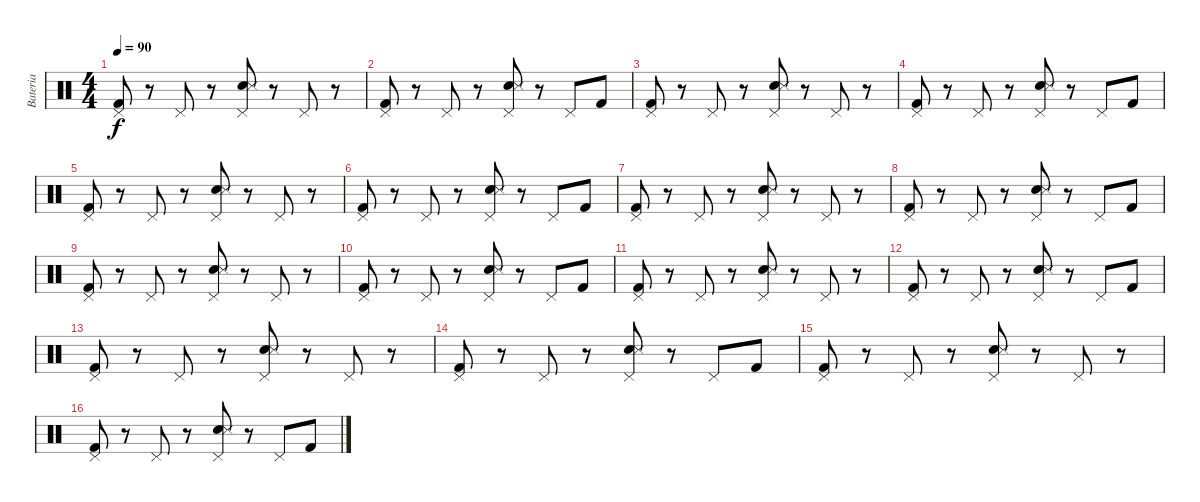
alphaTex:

\track ("Bateria" "Bateria") {instrument percussion}
\staff {score}
\articulation defaults
\ts (4 4)
\tempo 90
\clef neutral
\ks c
("Pedal Hi-Hat (hit)" "Kick (hit) 2").8{dy f} r.8 "Pedal Hi-Hat (hit)".8 r.8 ("Pedal Hi-Hat (hit)" "Snare (hit) 2" "Snare (side stick) 3").8 r.8 "Pedal Hi-Hat (hit)".8 r.8 |
("Pedal Hi-Hat (hit)" "Kick (hit) 2").8 r.8 "Pedal Hi-Hat (hit)".8 r.8 ("Pedal Hi-Hat (hit)" "Snare (hit) 2" "Snare (side stick) 3").8 r.8 "Pedal Hi-Hat (hit)".8 "Kick (hit) 2".8 |
("Pedal Hi-Hat (hit)" "Kick (hit) 2").8 r.8 "Pedal Hi-Hat (hit)".8 r.8 ("Pedal Hi-Hat (hit)" "Snare (hit) 2" "Snare (side stick) 3").8 r.8 "Pedal Hi-Hat (hit)".8 r.8 |
("Pedal Hi-Hat (hit)" "Kick (hit) 2").8 r.8 "Pedal Hi-Hat (hit)".8 r.8 ("Pedal Hi-Hat (hit)" "Snare (hit) 2" "Snare (side stick) 3").8 r.8 "Pedal Hi-Hat (hit)".8 "Kick (hit) 2".8 |
("Pedal Hi-Hat (hit)" "Kick (hit) 2").8 r.8 "Pedal Hi-Hat (hit)".8 r.8 ("Pedal Hi-Hat (hit)" "Snare (hit) 2" "Snare (side stick) 3").8 r.8 "Pedal Hi-Hat (hit)".8 r.8 |
("Pedal Hi-Hat (hit)" "Kick (hit) 2").8 r.8 "Pedal Hi-Hat (hit)".8 r.8 ("Pedal Hi-Hat (hit)" "Snare (hit) 2" "Snare (side stick) 3").8 r.8 "Pedal Hi-Hat (hit)".8 "Kick (hit) 2".8 |
("Pedal Hi-Hat (hit)" "Kick (hit) 2").8 r.8 "Pedal Hi-Hat (hit)".8 r.8 ("Pedal Hi-Hat (hit)" "Snare (hit) 2" "Snare (side stick) 3").8 r.8 "Pedal Hi-Hat (hit)".8 r.8 |
("Pedal Hi-Hat (hit)" "Kick (hit) 2").8 r.8 "Pedal Hi-Hat (hit)".8 r.8 ("Pedal Hi-Hat (hit)" "Snare (hit) 2" "Snare (side stick) 3").8 r.8 "Pedal Hi-Hat (hit)".8 "Kick (hit) 2".8 |
("Pedal Hi-Hat (hit)" "Kick (hit) 2").8 r.8 "Pedal Hi-Hat (hit)".8 r.8 ("Pedal Hi-Hat (hit)" "Snare (hit) 2" "Snare (side stick) 3").8 r.8 "Pedal Hi-Hat (hit)".8 r.8 |
("Pedal Hi-Hat (hit)" "Kick (hit) 2").8 r.8 "Pedal Hi-Hat (hit)".8 r.8 ("Pedal Hi-Hat (hit)" "Snare (hit) 2" "Snare (side stick) 3").8 r.8 "Pedal Hi-Hat (hit)".8 "Kick (hit) 2".8 |
("Pedal Hi-Hat (hit)" "Kick (hit) 2").8 r.8 "Pedal Hi-Hat (hit)".8 r.8 ("Pedal Hi-Hat (hit)" "Snare (hit) 2" "Snare (side stick) 3").8 r.8 "Pedal Hi-Hat (hit)".8 r.8 |
("Pedal Hi-Hat (hit)" "Kick (hit) 2").8 r.8 "Pedal Hi-Hat (hit)".8 r.8 ("Pedal Hi-Hat (hit)" "Snare (hit) 2" "Snare (side stick) 3").8 r.8 "Pedal Hi-Hat (hit)".8 "Kick (hit) 2".8 |
("Pedal Hi-Hat (hit)" "Kick (hit) 2").8 r.8 "Pedal Hi-Hat (hit)".8 r.8 ("Pedal Hi-Hat (hit)" "Snare (hit) 2" "Snare (side stick) 3").8 r.8 "Pedal Hi-Hat (hit)".8 r.8 |
("Pedal Hi-Hat (hit)" "Kick (hit) 2").8 r.8 "Pedal Hi-Hat (hit)".8 r.8 ("Pedal Hi-Hat (hit)" "Snare (hit) 2" "Snare (side stick) 3").8 r.8 "Pedal Hi-Hat (hit)".8 "Kick (hit) 2".8 |
("Pedal Hi-Hat (hit)" "Kick (hit) 2").8 r.8 "Pedal Hi-Hat (hit)".8 r.8 ("Pedal Hi-Hat (hit)" "Snare (hit) 2" "Snare (side stick) 3").8 r.8 "Pedal Hi-Hat (hit)".8 r.8 |
("Pedal Hi-Hat (hit)" "Kick (hit) 2").8 r.8 "Pedal Hi-Hat (hit)".8 r.8 ("Pedal Hi-Hat (hit)" "Snare (hit) 2" "Snare (side stick) 3").8 r.8 "Pedal Hi-Hat (hit)".8 "Kick (hit) 2".8
